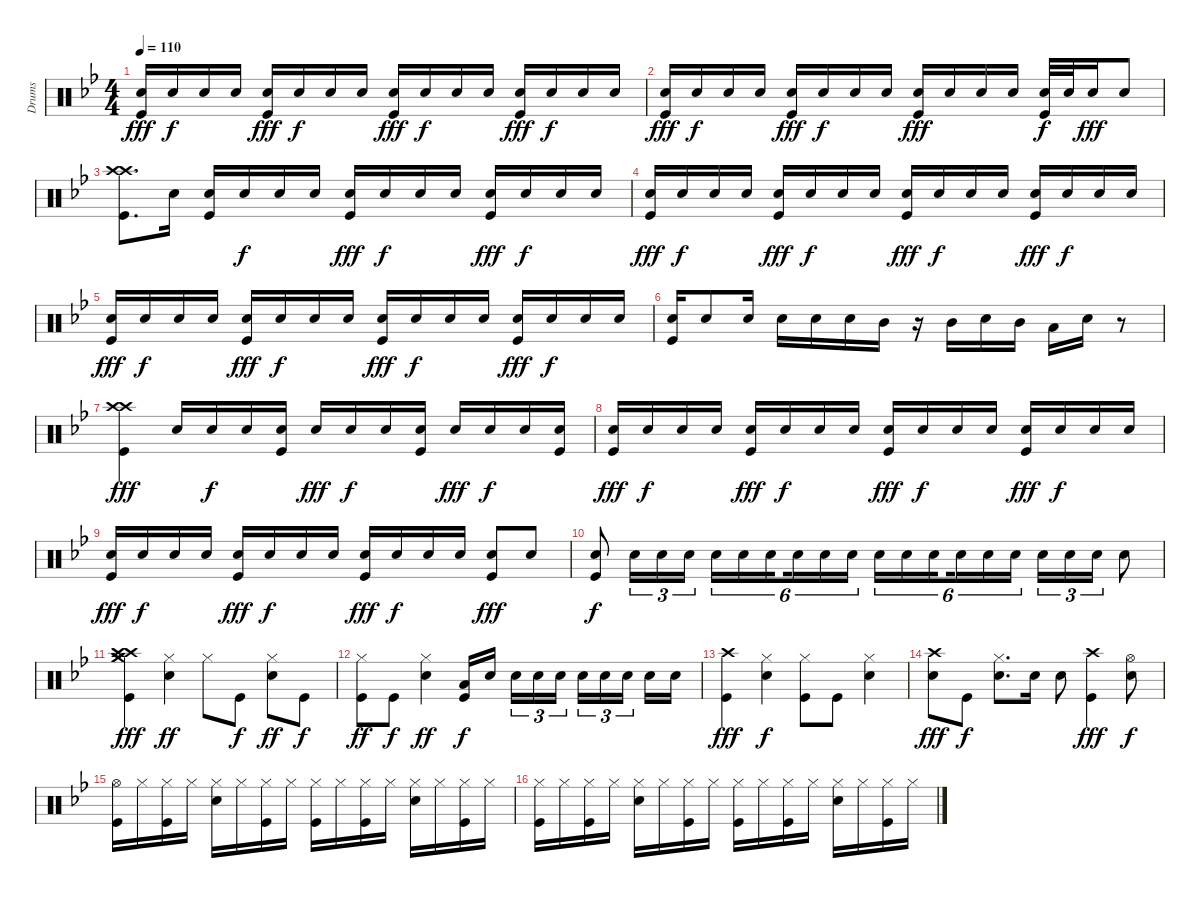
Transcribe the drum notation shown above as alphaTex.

\track ("Drums" "Drums") {instrument percussion}
\staff {score}
\articulation defaults
\ts (4 4)
\tempo 110
\clef neutral
\ks bb
("Snare (hit) 2" "Kick (hit)").16{dy fff} "Snare (hit) 2".16{dy f} "Snare (hit) 2".16 "Snare (hit) 2".16 ("Snare (hit) 2" "Kick (hit)").16{dy fff} "Snare (hit) 2".16{dy f} "Snare (hit) 2".16 "Snare (hit) 2".16 ("Snare (hit) 2" "Kick (hit)").16{dy fff} "Snare (hit) 2".16{dy f} "Snare (hit) 2".16 "Snare (hit) 2".16 ("Snare (hit) 2" "Kick (hit)").16{dy fff} "Snare (hit) 2".16{dy f} "Snare (hit) 2".16 "Snare (hit) 2".16 |
("Snare (hit) 2" "Kick (hit)").16{dy fff} "Snare (hit) 2".16{dy f} "Snare (hit) 2".16 "Snare (hit) 2".16 ("Snare (hit) 2" "Kick (hit)").16{dy fff} "Snare (hit) 2".16{dy f} "Snare (hit) 2".16 "Snare (hit) 2".16 ("Snare (hit) 2" "Kick (hit)").16{dy fff} "Snare (hit) 2".16 "Snare (hit) 2".16 "Snare (hit) 2".16 ("Snare (hit) 2" "Kick (hit)").32{dy f} "Snare (hit) 2".32 "Snare (hit) 2".16{dy fff} "Snare (hit) 2".8 |
("Crash high (hit)" "Crash high (hit)" "Kick (hit)").8{d} "Snare (hit) 2".16 ("Snare (hit) 2" "Kick (hit)").16 "Snare (hit) 2".16{dy f} "Snare (hit) 2".16 "Snare (hit) 2".16 ("Snare (hit) 2" "Kick (hit)").16{dy fff} "Snare (hit) 2".16{dy f} "Snare (hit) 2".16 "Snare (hit) 2".16 ("Snare (hit) 2" "Kick (hit)").16{dy fff} "Snare (hit) 2".16{dy f} "Snare (hit) 2".16 "Snare (hit) 2".16 |
("Snare (hit) 2" "Kick (hit)").16{dy fff} "Snare (hit) 2".16{dy f} "Snare (hit) 2".16 "Snare (hit) 2".16 ("Snare (hit) 2" "Kick (hit)").16{dy fff} "Snare (hit) 2".16{dy f} "Snare (hit) 2".16 "Snare (hit) 2".16 ("Snare (hit) 2" "Kick (hit)").16{dy fff} "Snare (hit) 2".16{dy f} "Snare (hit) 2".16 "Snare (hit) 2".16 ("Snare (hit) 2" "Kick (hit)").16{dy fff} "Snare (hit) 2".16{dy f} "Snare (hit) 2".16 "Snare (hit) 2".16 |
("Snare (hit) 2" "Kick (hit)").16{dy fff} "Snare (hit) 2".16{dy f} "Snare (hit) 2".16 "Snare (hit) 2".16 ("Snare (hit) 2" "Kick (hit)").16{dy fff} "Snare (hit) 2".16{dy f} "Snare (hit) 2".16 "Snare (hit) 2".16 ("Snare (hit) 2" "Kick (hit)").16{dy fff} "Snare (hit) 2".16{dy f} "Snare (hit) 2".16 "Snare (hit) 2".16 ("Snare (hit) 2" "Kick (hit)").16{dy fff} "Snare (hit) 2".16{dy f} "Snare (hit) 2".16 "Snare (hit) 2".16 |
("Snare (hit) 2" "Kick (hit)").16{volume 9} "Snare (hit) 2".8 "Snare (hit) 2".16 "Snare (hit) 2".16 "Snare (hit) 2".16 "Snare (hit) 2".16 "Mid Tom (hit)".16 r.16 "Mid Tom (hit)".16 "Snare (hit) 2".16 "Mid Tom (hit)".16 "Low Tom (hit)".16 "Snare (hit) 2".16 r.8 |
("Crash high (hit)" "Crash high (hit)" "Kick (hit)").4{dy fff} "Snare (hit) 2".16 "Snare (hit) 2".16{dy f} "Snare (hit) 2".16 ("Snare (hit) 2" "Kick (hit)").16 "Snare (hit) 2".16{dy fff} "Snare (hit) 2".16{dy f} "Snare (hit) 2".16 ("Snare (hit) 2" "Kick (hit)").16 "Snare (hit) 2".16{dy fff} "Snare (hit) 2".16{dy f} "Snare (hit) 2".16 ("Snare (hit) 2" "Kick (hit)").16 |
("Snare (hit) 2" "Kick (hit)").16{dy fff} "Snare (hit) 2".16{dy f} "Snare (hit) 2".16 "Snare (hit) 2".16 ("Snare (hit) 2" "Kick (hit)").16{dy fff} "Snare (hit) 2".16{dy f} "Snare (hit) 2".16 "Snare (hit) 2".16 ("Snare (hit) 2" "Kick (hit)").16{dy fff} "Snare (hit) 2".16{dy f} "Snare (hit) 2".16 "Snare (hit) 2".16 ("Snare (hit) 2" "Kick (hit)").16{dy fff} "Snare (hit) 2".16{dy f} "Snare (hit) 2".16 "Snare (hit) 2".16 |
("Snare (hit) 2" "Kick (hit)").16{dy fff} "Snare (hit) 2".16{dy f} "Snare (hit) 2".16 "Snare (hit) 2".16 ("Snare (hit) 2" "Kick (hit)").16{dy fff} "Snare (hit) 2".16{dy f} "Snare (hit) 2".16 "Snare (hit) 2".16 ("Snare (hit) 2" "Kick (hit)").16{dy fff} "Snare (hit) 2".16{dy f} "Snare (hit) 2".16 "Snare (hit) 2".16 ("Snare (hit) 2" "Kick (hit)").8{dy fff} "Snare (hit) 2".8 |
("Snare (hit) 2" "Kick (hit)").8{dy f} "Snare (hit) 2".16{tu (3 2)} "Snare (hit) 2".16{tu (3 2)} "Snare (hit) 2".16{tu (3 2)} "Snare (hit) 2".16{tu (6 4)} "Snare (hit) 2".16{tu (6 4)} "Snare (hit) 2".16{tu (6 4) beam splitsecondary} "Snare (hit) 2".16{tu (6 4)} "Snare (hit) 2".16{tu (6 4)} "Snare (hit) 2".16{tu (6 4)} "Snare (hit) 2".16{tu (6 4)} "Snare (hit) 2".16{tu (6 4)} "Snare (hit) 2".16{tu (6 4) beam splitsecondary} "Snare (hit) 2".16{tu (6 4)} "Snare (hit) 2".16{tu (6 4)} "Snare (hit) 2".16{tu (6 4)} "Snare (hit) 2".16{tu (3 2)} "Snare (hit) 2".16{tu (3 2)} "Snare (hit) 2".16{tu (3 2)} "Snare (hit) 2".8 |
("Crash high (hit)" "Crash medium (hit)" "Crash high (hit)" "Crash medium (hit)" "Kick (hit)").4{dy fff volume 12} ("Hi-Hat (closed)" "Snare (hit) 2").4{dy ff} "Hi-Hat (closed)".8 "Kick (hit)".8{dy f} ("Hi-Hat (closed)" "Snare (hit) 2").8{dy ff} "Kick (hit)".8{dy f} |
("Hi-Hat (closed)" "Kick (hit)").8{dy ff} "Kick (hit)".8{dy f} ("Hi-Hat (closed)" "Snare (hit) 2").4{dy ff} ("Low Tom (hit)" "Kick (hit)").16{dy f} "Snare (hit) 2".16{beam splitsecondary} "Snare (hit) 2".16{tu (3 2)} "Snare (hit) 2".16{tu (3 2)} "Snare (hit) 2".16{tu (3 2)} "Snare (hit) 2".16{tu (3 2)} "Snare (hit) 2".16{tu (3 2)} "Snare (hit) 2".16{tu (3 2) beam splitsecondary} "Snare (hit) 2".16 "Snare (hit) 2".16 |
("Crash high (hit)" "Kick (hit)").4{dy fff} ("Hi-Hat (closed)" "Snare (hit) 2").4{dy f} ("Hi-Hat (closed)" "Kick (hit)").8 "Kick (hit)".8 ("Hi-Hat (closed)" "Snare (hit) 2").4 |
("Crash high (hit)" "Snare (hit) 2").8{dy fff} "Kick (hit)".8{dy f} ("Hi-Hat (closed)" "Snare (hit) 2").8{d} "Snare (hit) 2".16 "Snare (hit) 2".8 ("Crash high (hit)" "Kick (hit)").4{dy fff} ("Hi-Hat (open)" "Snare (hit) 2").8{dy f} |
("Hi-Hat (open)" "Kick (hit)").16 "Hi-Hat (closed)".16 ("Hi-Hat (closed)" "Kick (hit)").16 "Hi-Hat (closed)".16 ("Hi-Hat (closed)" "Snare (hit) 2").16 "Hi-Hat (closed)".16 ("Hi-Hat (closed)" "Kick (hit)").16 "Hi-Hat (closed)".16 ("Hi-Hat (closed)" "Kick (hit)").16 "Hi-Hat (closed)".16 ("Hi-Hat (closed)" "Kick (hit)").16 "Hi-Hat (closed)".16 ("Hi-Hat (closed)" "Snare (hit) 2").16 "Hi-Hat (closed)".16 ("Hi-Hat (closed)" "Kick (hit)").16 "Hi-Hat (closed)".16 |
("Hi-Hat (closed)" "Kick (hit)").16 "Hi-Hat (closed)".16 ("Hi-Hat (closed)" "Kick (hit)").16 "Hi-Hat (closed)".16 ("Hi-Hat (closed)" "Snare (hit) 2").16 "Hi-Hat (closed)".16 ("Hi-Hat (closed)" "Kick (hit)").16 "Hi-Hat (closed)".16 ("Hi-Hat (closed)" "Kick (hit)").16 "Hi-Hat (closed)".16 ("Hi-Hat (closed)" "Kick (hit)").16 "Hi-Hat (closed)".16 ("Hi-Hat (closed)" "Snare (hit) 2").16 "Hi-Hat (closed)".16 ("Hi-Hat (closed)" "Kick (hit)").16 "Hi-Hat (closed)".16
